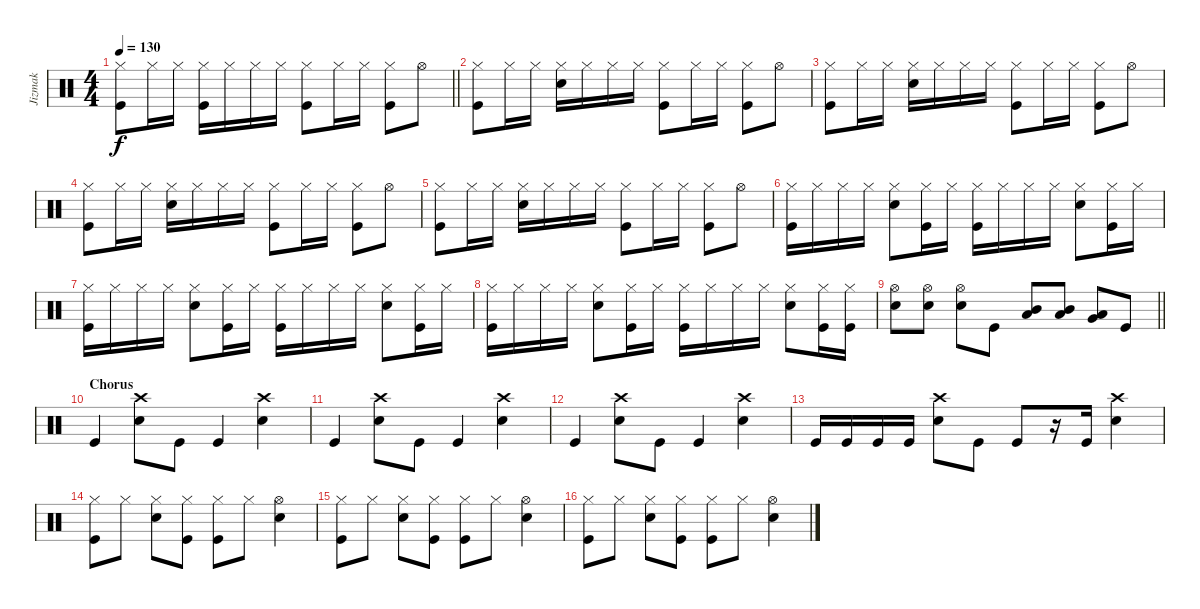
\track ("Jizmak" "Jizmak") {instrument percussion}
\staff {score}
\articulation defaults
\ts (4 4)
\tempo 130
\clef neutral
\barLineRight lightlight
\ks c
("Hi-Hat (closed)" "Kick (hit)").8{dy f} "Hi-Hat (closed)".16 "Hi-Hat (closed)".16 ("Hi-Hat (closed)" "Kick (hit)").16 "Hi-Hat (closed)".16 "Hi-Hat (closed)".16 "Hi-Hat (closed)".16 ("Hi-Hat (closed)" "Kick (hit)").8 "Hi-Hat (closed)".16 "Hi-Hat (closed)".16 ("Hi-Hat (closed)" "Kick (hit)").8 "Hi-Hat (open)".8 |
("Hi-Hat (closed)" "Kick (hit)").8 "Hi-Hat (closed)".16 "Hi-Hat (closed)".16 ("Hi-Hat (closed)" "Snare (hit) 2").16 "Hi-Hat (closed)".16 "Hi-Hat (closed)".16 "Hi-Hat (closed)".16 ("Hi-Hat (closed)" "Kick (hit)").8 "Hi-Hat (closed)".16 "Hi-Hat (closed)".16 ("Hi-Hat (closed)" "Kick (hit)").8 "Hi-Hat (open)".8 |
("Hi-Hat (closed)" "Kick (hit)").8 "Hi-Hat (closed)".16 "Hi-Hat (closed)".16 ("Hi-Hat (closed)" "Snare (hit) 2").16 "Hi-Hat (closed)".16 "Hi-Hat (closed)".16 "Hi-Hat (closed)".16 ("Hi-Hat (closed)" "Kick (hit)").8 "Hi-Hat (closed)".16 "Hi-Hat (closed)".16 ("Hi-Hat (closed)" "Kick (hit)").8 "Hi-Hat (open)".8 |
("Hi-Hat (closed)" "Kick (hit)").8 "Hi-Hat (closed)".16 "Hi-Hat (closed)".16 ("Hi-Hat (closed)" "Snare (hit) 2").16 "Hi-Hat (closed)".16 "Hi-Hat (closed)".16 "Hi-Hat (closed)".16 ("Hi-Hat (closed)" "Kick (hit)").8 "Hi-Hat (closed)".16 "Hi-Hat (closed)".16 ("Hi-Hat (closed)" "Kick (hit)").8 "Hi-Hat (open)".8 |
("Hi-Hat (closed)" "Kick (hit)").8 "Hi-Hat (closed)".16 "Hi-Hat (closed)".16 ("Hi-Hat (closed)" "Snare (hit) 2").16 "Hi-Hat (closed)".16 "Hi-Hat (closed)".16 "Hi-Hat (closed)".16 ("Hi-Hat (closed)" "Kick (hit)").8 "Hi-Hat (closed)".16 "Hi-Hat (closed)".16 ("Hi-Hat (closed)" "Kick (hit)").8 "Hi-Hat (open)".8 |
("Hi-Hat (closed)" "Kick (hit)").16 "Hi-Hat (closed)".16 "Hi-Hat (closed)".16 "Hi-Hat (closed)".16 ("Hi-Hat (closed)" "Snare (hit) 2").8 ("Hi-Hat (closed)" "Kick (hit)").16 "Hi-Hat (closed)".16 ("Hi-Hat (closed)" "Kick (hit)").16 "Hi-Hat (closed)".16 "Hi-Hat (closed)".16 "Hi-Hat (closed)".16 ("Hi-Hat (closed)" "Snare (hit) 2").8 ("Hi-Hat (closed)" "Kick (hit)").16 "Hi-Hat (closed)".16 |
("Hi-Hat (closed)" "Kick (hit)").16 "Hi-Hat (closed)".16 "Hi-Hat (closed)".16 "Hi-Hat (closed)".16 ("Hi-Hat (closed)" "Snare (hit) 2").8 ("Hi-Hat (closed)" "Kick (hit)").16 "Hi-Hat (closed)".16 ("Hi-Hat (closed)" "Kick (hit)").16 "Hi-Hat (closed)".16 "Hi-Hat (closed)".16 "Hi-Hat (closed)".16 ("Hi-Hat (closed)" "Snare (hit) 2").8 ("Hi-Hat (closed)" "Kick (hit)").16 "Hi-Hat (closed)".16 |
("Hi-Hat (closed)" "Kick (hit)").16 "Hi-Hat (closed)".16 "Hi-Hat (closed)".16 "Hi-Hat (closed)".16 ("Hi-Hat (closed)" "Snare (hit) 2").8 ("Hi-Hat (closed)" "Kick (hit)").16 "Hi-Hat (closed)".16 ("Hi-Hat (closed)" "Kick (hit)").16 "Hi-Hat (closed)".16 "Hi-Hat (closed)".16 "Hi-Hat (closed)".16 ("Hi-Hat (closed)" "Snare (hit) 2").8 ("Hi-Hat (closed)" "Kick (hit)").16 ("Hi-Hat (closed)" "Kick (hit)").16 |
\barLineRight lightlight
("Hi-Hat (open)" "Snare (hit) 2").8 ("Hi-Hat (open)" "Snare (hit) 2").8 ("Hi-Hat (open)" "Snare (hit) 2").8 "Kick (hit)".8 ("Mid Tom (hit)" "Low Tom (hit)").8 ("Mid Tom (hit)" "Low Tom (hit)").8 ("Low Tom (hit)" "Very Low Tom (hit)").8 "Kick (hit)".8 |
\section ("" "Chorus")
"Kick (hit)".4 ("Crash high (hit)" "Snare (hit) 2").8 "Kick (hit)".8 "Kick (hit)".4 ("Crash high (hit)" "Snare (hit) 2").4 |
"Kick (hit)".4 ("Crash high (hit)" "Snare (hit) 2").8 "Kick (hit)".8 "Kick (hit)".4 ("Crash high (hit)" "Snare (hit) 2").4 |
"Kick (hit)".4 ("Crash high (hit)" "Snare (hit) 2").8 "Kick (hit)".8 "Kick (hit)".4 ("Crash high (hit)" "Snare (hit) 2").4 |
"Kick (hit)".16 "Kick (hit)".16 "Kick (hit)".16 "Kick (hit)".16 ("Crash high (hit)" "Snare (hit) 2").8 "Kick (hit)".8 "Kick (hit)".8 r.16 "Kick (hit)".16 ("Crash high (hit)" "Snare (hit) 2").4 |
("Hi-Hat (closed)" "Kick (hit)").8 "Hi-Hat (closed)".8 ("Hi-Hat (closed)" "Snare (hit) 2").8 ("Hi-Hat (closed)" "Kick (hit)").8 ("Hi-Hat (closed)" "Kick (hit)").8 "Hi-Hat (closed)".8 ("Hi-Hat (open)" "Snare (hit) 2").4 |
("Hi-Hat (closed)" "Kick (hit)").8 "Hi-Hat (closed)".8 ("Hi-Hat (closed)" "Snare (hit) 2").8 ("Hi-Hat (closed)" "Kick (hit)").8 ("Hi-Hat (closed)" "Kick (hit)").8 "Hi-Hat (closed)".8 ("Hi-Hat (open)" "Snare (hit) 2").4 |
("Hi-Hat (closed)" "Kick (hit)").8 "Hi-Hat (closed)".8 ("Hi-Hat (closed)" "Snare (hit) 2").8 ("Hi-Hat (closed)" "Kick (hit)").8 ("Hi-Hat (closed)" "Kick (hit)").8 "Hi-Hat (closed)".8 ("Hi-Hat (open)" "Snare (hit) 2").4
